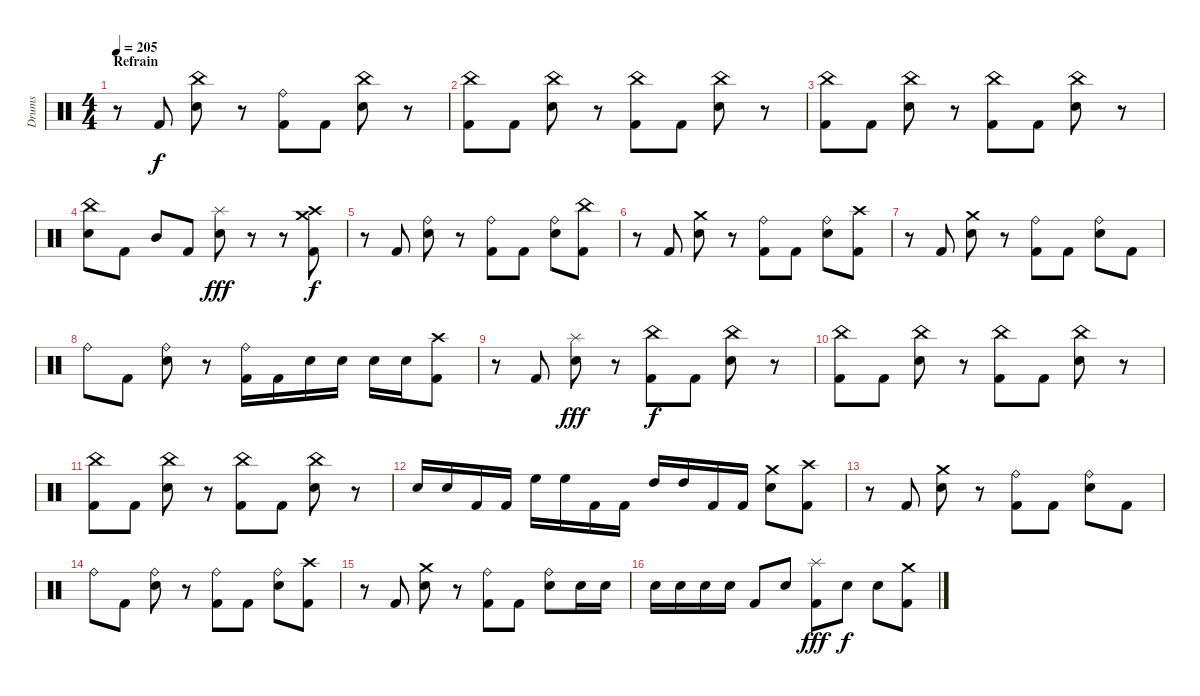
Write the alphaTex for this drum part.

\track ("Drums" "Drums") {instrument percussion}
\staff {score}
\articulation defaults
\ts (4 4)
\section ("" "Refrain")
\tempo 205
\clef neutral
\ks c
r.8{dy f} "Kick (hit) 2".8 ("China (hit)" "Electric Snare (hit)").8 r.8 ("Ride (bell)" "Kick (hit) 2").8 "Kick (hit) 2".8 ("China (hit)" "Electric Snare (hit)").8 r.8 |
("China (hit)" "Kick (hit) 2").8 "Kick (hit) 2".8 ("China (hit)" "Electric Snare (hit)").8 r.8 ("China (hit)" "Kick (hit) 2").8 "Kick (hit) 2".8 ("China (hit)" "Electric Snare (hit)").8 r.8 |
("China (hit)" "Kick (hit) 2").8 "Kick (hit) 2".8 ("China (hit)" "Electric Snare (hit)").8 r.8 ("China (hit)" "Kick (hit) 2").8 "Kick (hit) 2".8 ("China (hit)" "Electric Snare (hit)").8 r.8 |
("China (hit)" "Electric Snare (hit)").8 "Kick (hit) 2".8 "Mid Tom (hit)".8 "Kick (hit) 2".8 ("Splash (hit)" "Electric Snare (hit)").8{dy fff} r.8 r.8 ("Crash high (hit)" "Crash medium (hit)" "Kick (hit) 2").8{dy f} |
r.8 "Kick (hit) 2".8 ("Ride (bell)" "Electric Snare (hit)").8 r.8 ("Ride (bell)" "Kick (hit) 2").8 "Kick (hit) 2".8 ("Ride (bell)" "Electric Snare (hit)").8 ("China (hit)" "Kick (hit) 2").8 |
r.8 "Kick (hit) 2".8 ("Crash medium (hit)" "Electric Snare (hit)").8 r.8 ("Ride (bell)" "Kick (hit) 2").8 "Kick (hit) 2".8 ("Ride (bell)" "Electric Snare (hit)").8 ("Crash high (hit)" "Kick (hit) 2").8 |
r.8 "Kick (hit) 2".8 ("Crash medium (hit)" "Electric Snare (hit)").8 r.8 ("Ride (bell)" "Kick (hit) 2").8 "Kick (hit) 2".8 ("Ride (bell)" "Electric Snare (hit)").8 "Kick (hit) 2".8 |
"Ride (bell)".8 "Kick (hit) 2".8 ("Ride (bell)" "Electric Snare (hit)").8 r.8 ("Ride (bell)" "Kick (hit) 2").16 "Kick (hit) 2".16 "Electric Snare (hit)".16 "Electric Snare (hit)".16 "Electric Snare (hit)".16 "Electric Snare (hit)".16 ("Crash high (hit)" "Kick (hit) 2").8 |
r.8 "Kick (hit) 2".8 ("Splash (hit)" "Electric Snare (hit)").8{dy fff} r.8 ("China (hit)" "Kick (hit) 2").8{dy f} "Kick (hit) 2".8 ("China (hit)" "Electric Snare (hit)").8 r.8 |
("China (hit)" "Kick (hit) 2").8 "Kick (hit) 2".8 ("China (hit)" "Electric Snare (hit)").8 r.8 ("China (hit)" "Kick (hit) 2").8 "Kick (hit) 2".8 ("China (hit)" "Electric Snare (hit)").8 r.8 |
("China (hit)" "Kick (hit) 2").8 "Kick (hit) 2".8 ("China (hit)" "Electric Snare (hit)").8 r.8 ("China (hit)" "Kick (hit) 2").8 "Kick (hit) 2".8 ("China (hit)" "Electric Snare (hit)").8 r.8 |
"Electric Snare (hit)".16 "Electric Snare (hit)".16 "Kick (hit) 2".16 "Kick (hit) 2".16 "High Floor Tom (hit)".16 "High Floor Tom (hit)".16 "Kick (hit) 2".16 "Kick (hit) 2".16 "High Tom (hit)".16 "High Tom (hit)".16 "Kick (hit) 2".16 "Kick (hit) 2".16 ("Crash medium (hit)" "Electric Snare (hit)").8 ("Crash high (hit)" "Kick (hit) 2").8 |
r.8 "Kick (hit) 2".8 ("Crash medium (hit)" "Electric Snare (hit)").8 r.8 ("Ride (bell)" "Kick (hit) 2").8 "Kick (hit) 2".8 ("Ride (bell)" "Electric Snare (hit)").8 "Kick (hit) 2".8 |
"Ride (bell)".8 "Kick (hit) 2".8 ("Ride (bell)" "Electric Snare (hit)").8 r.8 ("Ride (bell)" "Kick (hit) 2").8 "Kick (hit) 2".8 ("Ride (bell)" "Electric Snare (hit)").8 ("Crash high (hit)" "Kick (hit) 2").8 |
r.8 "Kick (hit) 2".8 ("Crash medium (hit)" "Electric Snare (hit)").8 r.8 ("Ride (bell)" "Kick (hit) 2").8 "Kick (hit) 2".8 ("Ride (bell)" "Electric Snare (hit)").8 "Electric Snare (hit)".16 "Electric Snare (hit)".16 |
"Electric Snare (hit)".16 "Electric Snare (hit)".16 "Electric Snare (hit)".16 "Electric Snare (hit)".16 "Kick (hit) 2".8 "Electric Snare (hit)".8 ("Splash (hit)" "Kick (hit) 2").8{dy fff} "Electric Snare (hit)".8{dy f} "Electric Snare (hit)".8 ("Crash medium (hit)" "Kick (hit) 2").8
